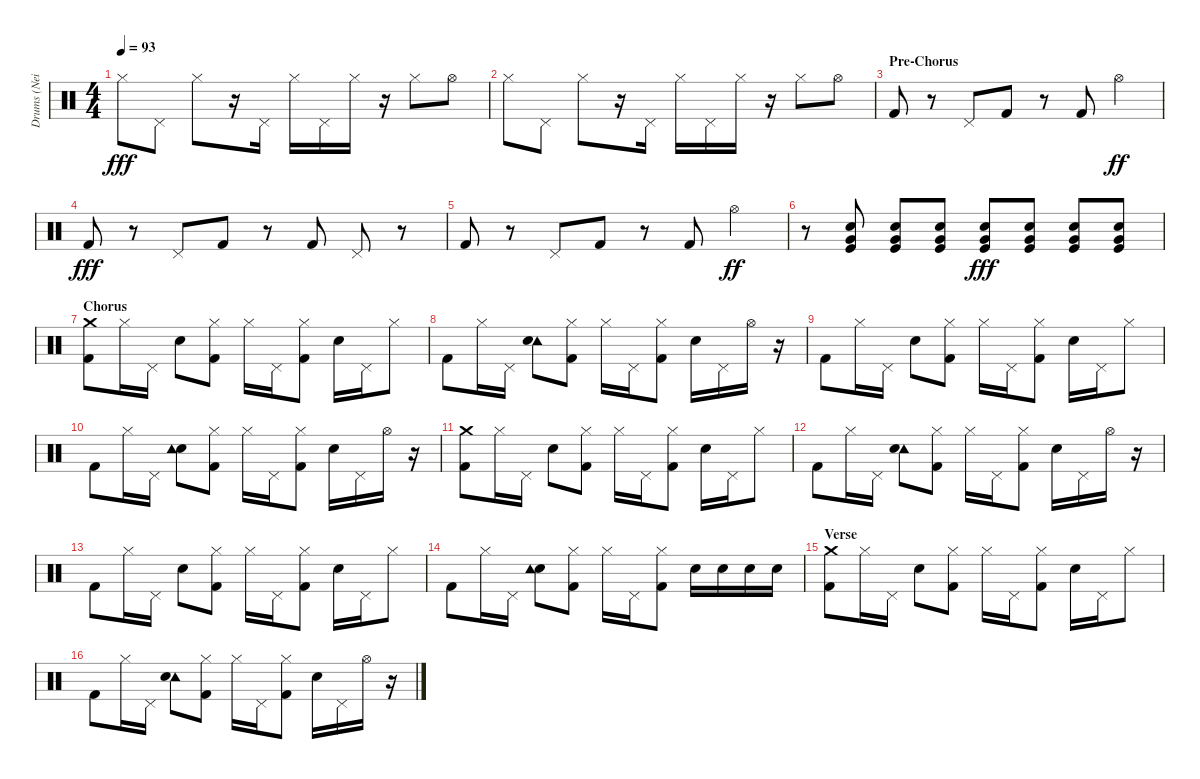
\track ("Drums (Neil)" "Drums (Nei") {instrument percussion}
\staff {score}
\articulation defaults
\ts (4 4)
\tempo 93
\clef neutral
\ks c "Hi-Hat (closed)".8{dy fff} "Pedal Hi-Hat (hit)".8 "Hi-Hat (closed)".8
r.16 "Pedal Hi-Hat (hit)".16 "Hi-Hat (closed)".16 "Pedal Hi-Hat (hit)".16 "Hi-Hat (closed)".16 r.16 "Hi-Hat (closed)".8 "Hi-Hat (open)".8 |
"Hi-Hat (closed)".8 "Pedal Hi-Hat (hit)".8 "Hi-Hat (closed)".8 r.16 "Pedal Hi-Hat (hit)".16 "Hi-Hat (closed)".16 "Pedal Hi-Hat (hit)".16 "Hi-Hat (closed)".16 r.16 "Hi-Hat (closed)".8 "Hi-Hat (open)".8 |
\section ("" "Pre-Chorus")
"Kick (hit) 2".8 r.8 "Pedal Hi-Hat (hit)".8 "Kick (hit) 2".8 r.8 "Kick (hit) 2".8 "Hi-Hat (open)".4{dy ff} |
"Kick (hit) 2".8{dy fff} r.8 "Pedal Hi-Hat (hit)".8 "Kick (hit) 2".8 r.8 "Kick (hit) 2".8 "Pedal Hi-Hat (hit)".8 r.8 |
"Kick (hit) 2".8 r.8 "Pedal Hi-Hat (hit)".8 "Kick (hit) 2".8 r.8 "Kick (hit) 2".8 "Hi-Hat (open)".4{dy ff} |
r.8 ("Very Low Tom (hit)" "Kick (hit)" "Electric Snare (hit)").8 ("Electric Snare (hit)" "Kick (hit)" "Very Low Tom (hit)").8 ("Kick (hit)" "Very Low Tom (hit)" "Electric Snare (hit)").8 ("Kick (hit)" "Very Low Tom (hit)" "Electric Snare (hit)").8{dy fff} ("Electric Snare (hit)" "Kick (hit)" "Very Low Tom (hit)").8 ("Very Low Tom (hit)" "Kick (hit)" "Electric Snare (hit)").8 ("Kick (hit)" "Electric Snare (hit)" "Very Low Tom (hit)").8 |
\section ("" "Chorus")
("Crash medium (hit)" "Kick (hit) 2").8 "Hi-Hat (closed)".16 "Pedal Hi-Hat (hit)".16 "Electric Snare (hit)".8 ("Kick (hit) 2" "Hi-Hat (closed)").8 "Hi-Hat (closed)".16 "Pedal Hi-Hat (hit)".16 ("Hi-Hat (closed)" "Kick (hit) 2").8 "Electric Snare (hit)".16 "Pedal Hi-Hat (hit)".16 "Hi-Hat (closed)".8 |
"Kick (hit) 2".8 "Hi-Hat (closed)".16 "Pedal Hi-Hat (hit)".16 ("Tambourine (hit)" "Electric Snare (hit)").8 ("Hi-Hat (closed)" "Kick (hit) 2").8 "Hi-Hat (closed)".16 "Pedal Hi-Hat (hit)".16 ("Hi-Hat (closed)" "Kick (hit) 2").8 "Electric Snare (hit)".16 "Pedal Hi-Hat (hit)".16 "Hi-Hat (open)".16 r.16 |
"Kick (hit) 2".8 "Hi-Hat (closed)".16 "Pedal Hi-Hat (hit)".16 "Electric Snare (hit)".8 ("Hi-Hat (closed)" "Kick (hit) 2").8 "Hi-Hat (closed)".16 "Pedal Hi-Hat (hit)".16 ("Kick (hit) 2" "Hi-Hat (closed)").8 "Electric Snare (hit)".16 "Pedal Hi-Hat (hit)".16 "Hi-Hat (closed)".8 |
"Kick (hit) 2".8 "Hi-Hat (closed)".16 "Pedal Hi-Hat (hit)".16 ("Electric Snare (hit)" "Tambourine (hit)").8 ("Hi-Hat (closed)" "Kick (hit) 2").8 "Hi-Hat (closed)".16 "Pedal Hi-Hat (hit)".16 ("Hi-Hat (closed)" "Kick (hit) 2").8 "Electric Snare (hit)".16 "Pedal Hi-Hat (hit)".16 "Hi-Hat (open)".16 r.16 |
("Kick (hit) 2" "Crash medium (hit)").8 "Hi-Hat (closed)".16 "Pedal Hi-Hat (hit)".16 "Electric Snare (hit)".8 ("Hi-Hat (closed)" "Kick (hit) 2").8 "Hi-Hat (closed)".16 "Pedal Hi-Hat (hit)".16 ("Kick (hit) 2" "Hi-Hat (closed)").8 "Electric Snare (hit)".16 "Pedal Hi-Hat (hit)".16 "Hi-Hat (closed)".8 |
"Kick (hit) 2".8 "Hi-Hat (closed)".16 "Pedal Hi-Hat (hit)".16 ("Tambourine (hit)" "Electric Snare (hit)").8 ("Hi-Hat (closed)" "Kick (hit) 2").8 "Hi-Hat (closed)".16 "Pedal Hi-Hat (hit)".16 ("Hi-Hat (closed)" "Kick (hit) 2").8 "Electric Snare (hit)".16 "Pedal Hi-Hat (hit)".16 "Hi-Hat (open)".16 r.16 |
"Kick (hit) 2".8 "Hi-Hat (closed)".16 "Pedal Hi-Hat (hit)".16 "Electric Snare (hit)".8 ("Hi-Hat (closed)" "Kick (hit) 2").8 "Hi-Hat (closed)".16 "Pedal Hi-Hat (hit)".16 ("Hi-Hat (closed)" "Kick (hit) 2").8 "Electric Snare (hit)".16 "Pedal Hi-Hat (hit)".16 "Hi-Hat (closed)".8 |
"Kick (hit) 2".8 "Hi-Hat (closed)".16 "Pedal Hi-Hat (hit)".16 ("Electric Snare (hit)" "Tambourine (hit)").8 ("Hi-Hat (closed)" "Kick (hit) 2").8 "Hi-Hat (closed)".16 "Pedal Hi-Hat (hit)".16 ("Hi-Hat (closed)" "Kick (hit) 2").8 "Electric Snare (hit)".16 "Electric Snare (hit)".16 "Electric Snare (hit)".16 "Electric Snare (hit)".16 |
\section ("" "Verse")
("Crash medium (hit)" "Kick (hit) 2").8 "Hi-Hat (closed)".16 "Pedal Hi-Hat (hit)".16 "Electric Snare (hit)".8 ("Kick (hit) 2" "Hi-Hat (closed)").8 "Hi-Hat (closed)".16 "Pedal Hi-Hat (hit)".16 ("Kick (hit) 2" "Hi-Hat (closed)").8 "Electric Snare (hit)".16 "Pedal Hi-Hat (hit)".16 "Hi-Hat (closed)".8 |
"Kick (hit) 2".8 "Hi-Hat (closed)".16 "Pedal Hi-Hat (hit)".16 ("Tambourine (hit)" "Electric Snare (hit)").8 ("Hi-Hat (closed)" "Kick (hit) 2").8 "Hi-Hat (closed)".16 "Pedal Hi-Hat (hit)".16 ("Hi-Hat (closed)" "Kick (hit) 2").8 "Electric Snare (hit)".16 "Pedal Hi-Hat (hit)".16 "Hi-Hat (open)".16 r.16
